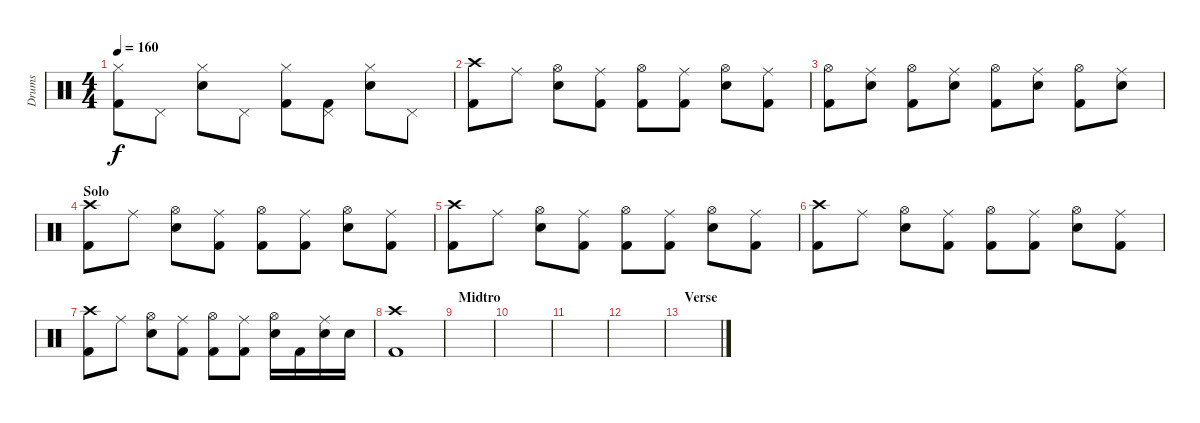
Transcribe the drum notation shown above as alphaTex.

\track ("Drums" "Drums") {instrument percussion}
\staff {score}
\articulation defaults
\ts (4 4)
\tempo 160
\clef neutral
\ks c
("Kick (hit) 2" "Hi-Hat (closed)").8{dy f} "Pedal Hi-Hat (hit)".8 ("Electric Snare (hit)" "Hi-Hat (closed)").8 "Pedal Hi-Hat (hit)".8 ("Kick (hit) 2" "Hi-Hat (closed)").8 ("Kick (hit) 2" "Pedal Hi-Hat (hit)").8 ("Electric Snare (hit)" "Hi-Hat (closed)").8 "Pedal Hi-Hat (hit)".8 |
("Kick (hit) 2" "Crash high (hit)").8 "Ride (middle)".8 ("Electric Snare (hit)" "Hi-Hat (open)").8 ("Kick (hit) 2" "Ride (middle)").8 ("Kick (hit) 2" "Hi-Hat (open)").8 ("Kick (hit) 2" "Ride (middle)").8 ("Electric Snare (hit)" "Hi-Hat (open)").8 ("Kick (hit) 2" "Ride (middle)").8 |
("Kick (hit) 2" "Hi-Hat (open)").8 ("Electric Snare (hit)" "Ride (middle)").8 ("Kick (hit) 2" "Hi-Hat (open)").8 ("Electric Snare (hit)" "Ride (middle)").8 ("Kick (hit) 2" "Hi-Hat (open)").8 ("Electric Snare (hit)" "Ride (middle)").8 ("Kick (hit) 2" "Hi-Hat (open)").8 ("Electric Snare (hit)" "Ride (middle)").8 |
\section ("" "Solo")
("Kick (hit) 2" "Crash high (hit)").8 "Ride (middle)".8 ("Electric Snare (hit)" "Hi-Hat (open)").8 ("Kick (hit) 2" "Ride (middle)").8 ("Kick (hit) 2" "Hi-Hat (open)").8 ("Kick (hit) 2" "Ride (middle)").8 ("Electric Snare (hit)" "Hi-Hat (open)").8 ("Kick (hit) 2" "Ride (middle)").8 |
("Kick (hit) 2" "Crash high (hit)").8 "Ride (middle)".8 ("Electric Snare (hit)" "Hi-Hat (open)").8 ("Kick (hit) 2" "Ride (middle)").8 ("Kick (hit) 2" "Hi-Hat (open)").8 ("Kick (hit) 2" "Ride (middle)").8 ("Electric Snare (hit)" "Hi-Hat (open)").8 ("Kick (hit) 2" "Ride (middle)").8 |
("Kick (hit) 2" "Crash high (hit)").8 "Ride (middle)".8 ("Electric Snare (hit)" "Hi-Hat (open)").8 ("Kick (hit) 2" "Ride (middle)").8 ("Kick (hit) 2" "Hi-Hat (open)").8 ("Kick (hit) 2" "Ride (middle)").8 ("Electric Snare (hit)" "Hi-Hat (open)").8 ("Kick (hit) 2" "Ride (middle)").8 |
("Kick (hit) 2" "Crash high (hit)").8 "Ride (middle)".8 ("Electric Snare (hit)" "Hi-Hat (open)").8 ("Kick (hit) 2" "Ride (middle)").8 ("Kick (hit) 2" "Hi-Hat (open)").8 ("Kick (hit) 2" "Ride (middle)").8 ("Electric Snare (hit)" "Hi-Hat (open)").16 "Kick (hit) 2".16 ("Electric Snare (hit)" "Ride (middle)").16 "Snare (hit) 2".16 |
("Kick (hit) 2" "Crash high (hit)").1 |
\section ("" "Midtro")
|
|
|
|
\section ("" "Verse")
